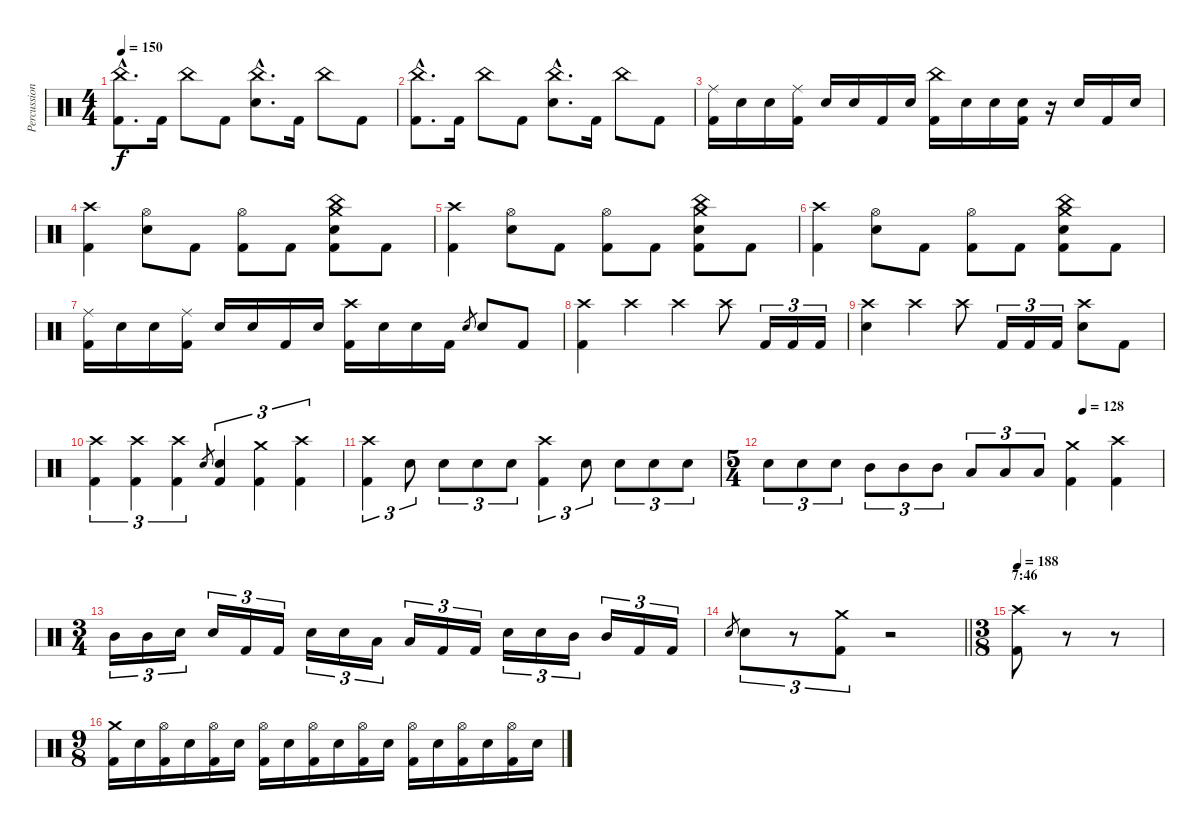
\track ("Percussion" "Percussion") {instrument percussion}
\staff {score}
\articulation defaults
\ts (4 4)
\tempo 150
\clef neutral
\ks c
("Kick (hit) 2"{hac} "China (hit)"{hac}).8{d dy f} "Kick (hit) 2".16 "China (hit)".8 "Kick (hit) 2".8 ("Electric Snare (hit)"{hac} "China (hit)"{hac}).8{d} "Kick (hit) 2".16 "China (hit)".8 "Kick (hit) 2".8 |
("Kick (hit) 2"{hac} "China (hit)"{hac}).8{d} "Kick (hit) 2".16 "China (hit)".8 "Kick (hit) 2".8 ("Electric Snare (hit)"{hac} "China (hit)"{hac}).8{d} "Kick (hit) 2".16 "China (hit)".8 "Kick (hit) 2".8 |
("Ride (middle)" "Kick (hit) 2").16 "Electric Snare (hit)".16 "Electric Snare (hit)".16 ("Ride (middle)" "Kick (hit) 2").16 "Electric Snare (hit)".16 "Electric Snare (hit)".16 "Kick (hit) 2".16 "Electric Snare (hit)".16 ("China (hit)" "Kick (hit) 2").16 "Electric Snare (hit)".16 "Electric Snare (hit)".16 ("Electric Snare (hit)" "Kick (hit) 2").16 r.16 "Electric Snare (hit)".16 "Kick (hit) 2".16 "Electric Snare (hit)".16 |
("Crash high (hit)" "Kick (hit) 2").4 ("Electric Snare (hit)" "Hi-Hat (open)").8 "Kick (hit) 2".8 ("Kick (hit) 2" "Hi-Hat (open)").8 "Kick (hit) 2".8 ("Kick (hit) 2" "Crash medium (hit)" "Electric Snare (hit)" "China (hit)").8 "Kick (hit) 2".8 |
("Crash high (hit)" "Kick (hit) 2").4 ("Electric Snare (hit)" "Hi-Hat (open)").8 "Kick (hit) 2".8 ("Kick (hit) 2" "Hi-Hat (open)").8 "Kick (hit) 2".8 ("Kick (hit) 2" "Crash medium (hit)" "Electric Snare (hit)" "China (hit)").8 "Kick (hit) 2".8 |
("Crash high (hit)" "Kick (hit) 2").4 ("Electric Snare (hit)" "Hi-Hat (open)").8 "Kick (hit) 2".8 ("Kick (hit) 2" "Hi-Hat (open)").8 "Kick (hit) 2".8 ("Kick (hit) 2" "Crash medium (hit)" "Electric Snare (hit)" "China (hit)").8 "Kick (hit) 2".8 |
("Ride (middle)" "Kick (hit) 2").16 "Electric Snare (hit)".16 "Electric Snare (hit)".16 ("Ride (middle)" "Kick (hit) 2").16 "Electric Snare (hit)".16 "Electric Snare (hit)".16 "Kick (hit) 2".16 "Electric Snare (hit)".16 ("Crash high (hit)" "Kick (hit) 2").16 "Electric Snare (hit)".16 "Electric Snare (hit)".16 "Kick (hit) 2".16 "Electric Snare (hit)".8{gr} "Electric Snare (hit)".8 "Kick (hit) 2".8 |
("Crash high (hit)" "Kick (hit) 2").4 "Crash high (hit)".4 "Crash high (hit)".4 "Crash high (hit)".8 "Kick (hit) 2".16{tu (3 2)} "Kick (hit) 2".16{tu (3 2)} "Kick (hit) 2".16{tu (3 2)} |
("Crash high (hit)" "Electric Snare (hit)").4 "Crash high (hit)".4 "Crash high (hit)".8 "Kick (hit) 2".16{tu (3 2)} "Kick (hit) 2".16{tu (3 2)} "Kick (hit) 2".16{tu (3 2)} ("Crash high (hit)" "Electric Snare (hit)").8 "Kick (hit) 2".8 |
("Crash high (hit)" "Kick (hit) 2").4{tu (3 2)} ("Kick (hit) 2" "Crash high (hit)").4{tu (3 2)} ("Kick (hit) 2" "Crash high (hit)").4{tu (3 2)} "Electric Snare (hit)".8{gr} ("Kick (hit) 2" "Electric Snare (hit)").4{tu (3 2)} ("Kick (hit) 2" "Crash medium (hit)").4{tu (3 2)} ("Kick (hit) 2" "Crash high (hit)").4{tu (3 2)} |
("Crash high (hit)" "Kick (hit) 2").4{tu (3 2)} "Electric Snare (hit)".8{tu (3 2)} "Electric Snare (hit)".8{tu (3 2)} "Electric Snare (hit)".8{tu (3 2)} "Electric Snare (hit)".8{tu (3 2)} ("Crash high (hit)" "Kick (hit) 2").4{tu (3 2)} "Electric Snare (hit)".8{tu (3 2)} "Electric Snare (hit)".8{tu (3 2)} "Electric Snare (hit)".8{tu (3 2)} "Electric Snare (hit)".8{tu (3 2)} |
\ts (5 4)
\tempo (128 0.8)
"Electric Snare (hit)".8{tu (3 2)} "Electric Snare (hit)".8{tu (3 2)} "Electric Snare (hit)".8{tu (3 2)} "Mid Tom (hit)".8{tu (3 2)} "Mid Tom (hit)".8{tu (3 2)} "Mid Tom (hit)".8{tu (3 2)} "Low Tom (hit)".8{tu (3 2)} "Low Tom (hit)".8{tu (3 2)} "Low Tom (hit)".8{tu (3 2)} ("Crash medium (hit)" "Kick (hit) 2").4 ("Crash high (hit)" "Kick (hit) 2").4 |
\ts (3 4)
"Mid Tom (hit)".16{tu (3 2)} "Mid Tom (hit)".16{tu (3 2)} "Electric Snare (hit)".16{tu (3 2)} "Electric Snare (hit)".16{tu (3 2)} "Kick (hit) 2".16{tu (3 2)} "Kick (hit) 2".16{tu (3 2)} "Electric Snare (hit)".16{tu (3 2)} "Electric Snare (hit)".16{tu (3 2)} "Low Tom (hit)".16{tu (3 2)} "Low Tom (hit)".16{tu (3 2)} "Kick (hit) 2".16{tu (3 2)} "Kick (hit) 2".16{tu (3 2)} "Electric Snare (hit)".16{tu (3 2)} "Electric Snare (hit)".16{tu (3 2)} "Mid Tom (hit)".16{tu (3 2)} "Mid Tom (hit)".16{tu (3 2)} "Kick (hit) 2".16{tu (3 2)} "Kick (hit) 2".16{tu (3 2)} |
\barLineRight lightlight "Electric Snare (hit)".8{gr} "Electric Snare (hit)".8{tu (3 2)}
r.8{tu (3 2)} ("Crash medium (hit)" "Kick (hit) 2").8{tu (3 2)} r.2{volume 0} |
\ts (3 8)
\section ("" "7:46")
\tempo 188
("Crash high (hit)" "Kick (hit) 2").8{volume 13} r.8{volume 0} r.8 |
\ts (9 8)
("Crash medium (hit)" "Kick (hit) 2").16{volume 13} "Electric Snare (hit)".16 ("Hi-Hat (open)" "Kick (hit) 2").16 "Electric Snare (hit)".16 ("Hi-Hat (open)" "Kick (hit) 2").16 "Electric Snare (hit)".16 ("Hi-Hat (open)" "Kick (hit) 2").16 "Electric Snare (hit)".16 ("Hi-Hat (open)" "Kick (hit) 2").16 "Electric Snare (hit)".16 ("Hi-Hat (open)" "Kick (hit) 2").16 "Electric Snare (hit)".16 ("Hi-Hat (open)" "Kick (hit) 2").16 "Electric Snare (hit)".16 ("Hi-Hat (open)" "Kick (hit) 2").16 "Electric Snare (hit)".16 ("Hi-Hat (open)" "Kick (hit) 2").16 "Electric Snare (hit)".16
